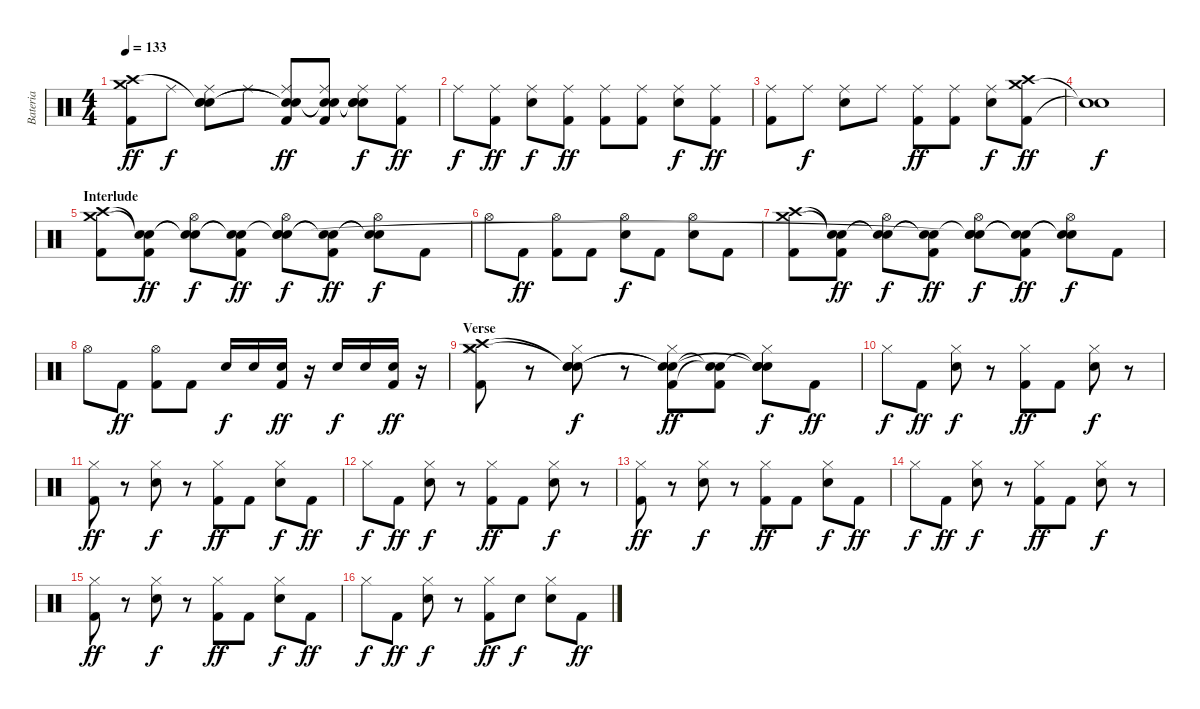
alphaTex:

\track ("Bateria" "Bateria") {instrument percussion}
\staff {score}
\articulation defaults
\ts (4 4)
\tempo 133
\clef neutral
\ks c
("Kick (hit) 2" "Crash medium (hit)" "Crash high (hit)").8{dy ff} "Ride (middle)".8{dy f} ("Ride (middle)" "Snare (hit) 2" "Snare (hit)"{t} "Snare (hit)"{t}).8 "Ride (middle)".8 ("Ride (middle)" "Kick (hit) 2" "Snare (hit)"{t} "Snare (hit)"{t}).8{dy ff} ("Ride (middle)" "Kick (hit) 2" "Snare (hit)"{t} "Snare (hit)"{t}).8 ("Ride (middle)" "Snare (hit) 2" "Snare (hit)"{t} "Snare (hit)"{t}).8{dy f} ("Ride (middle)" "Kick (hit) 2").8{dy ff} |
"Ride (middle)".8{dy f} ("Ride (middle)" "Kick (hit) 2").8{dy ff} ("Ride (middle)" "Snare (hit) 2").8{dy f} ("Ride (middle)" "Kick (hit) 2").8{dy ff} ("Ride (middle)" "Kick (hit) 2").8 ("Ride (middle)" "Kick (hit) 2").8 ("Ride (middle)" "Snare (hit) 2").8{dy f} ("Ride (middle)" "Kick (hit) 2").8{dy ff} |
("Ride (middle)" "Kick (hit) 2").8 "Ride (middle)".8{dy f} ("Ride (middle)" "Snare (hit) 2").8 "Ride (middle)".8 ("Ride (middle)" "Kick (hit) 2").8{dy ff} ("Ride (middle)" "Kick (hit) 2").8 ("Ride (middle)" "Snare (hit) 2").8{dy f} ("Kick (hit) 2" "Crash medium (hit)" "Crash high (hit)").8{dy ff} |
("Snare (hit)"{t} "Snare (hit)"{t}).1{dy f} |
\section ("" "Interlude")
("Kick (hit) 2" "Crash high (hit)" "Crash medium (hit)").8 ("Kick (hit) 2" "Snare (hit)"{t} "Snare (hit)"{t}).8{dy ff} ("Hi-Hat (open)" "Snare (hit)"{t} "Snare (hit)"{t}).8{dy f} ("Kick (hit) 2" "Snare (hit)"{t} "Snare (hit)"{t}).8{dy ff} ("Hi-Hat (open)" "Snare (hit) 2" "Snare (hit)"{t} "Snare (hit)").8{dy f} ("Kick (hit) 2" "Snare (hit)"{t} "Snare (hit)"{t}).8{dy ff} ("Hi-Hat (open)" "Snare (hit)"{t} "Snare (hit)"{t}).8{dy f} "Kick (hit) 2".8 |
"Hi-Hat (open)".8 "Kick (hit) 2".8{dy ff} ("Hi-Hat (open)" "Kick (hit) 2").8 "Kick (hit) 2".8 ("Hi-Hat (open)" "Snare (hit) 2").8{dy f} "Kick (hit) 2".8 ("Hi-Hat (open)" "Snare (hit) 2").8 "Kick (hit) 2".8 |
("Kick (hit) 2" "Crash high (hit)" "Crash medium (hit)").8 ("Kick (hit) 2" "Snare (hit)"{t} "Snare (hit)"{t}).8{dy ff} ("Hi-Hat (open)" "Snare (hit)"{t} "Snare (hit)"{t}).8{dy f} ("Kick (hit) 2" "Snare (hit)"{t} "Snare (hit)"{t}).8{dy ff} ("Hi-Hat (open)" "Snare (hit) 2" "Snare (hit)"{t} "Snare (hit)"{t}).8{dy f} ("Kick (hit) 2" "Snare (hit)"{t} "Snare (hit)"{t}).8{dy ff} ("Hi-Hat (open)" "Snare (hit)"{t} "Snare (hit)"{t}).8{dy f} "Kick (hit) 2".8 |
"Hi-Hat (open)".8 "Kick (hit) 2".8{dy ff} ("Hi-Hat (open)" "Kick (hit) 2").8 "Kick (hit) 2".8 "Snare (hit) 2".16{dy f} "Snare (hit) 2".16 ("Snare (hit) 2" "Kick (hit) 2").16{dy ff} r.16 "Snare (hit) 2".16{dy f} "Snare (hit) 2".16 ("Snare (hit) 2" "Kick (hit) 2").16{dy ff} r.16 |
\section ("" "Verse")
("Hi-Hat (closed)" "Kick (hit) 2" "Crash medium (hit)" "Crash high (hit)").8 r.8 ("Hi-Hat (closed)" "Snare (hit) 2" "Snare (hit)"{t} "Snare (hit)"{t}).8{dy f} r.8 ("Hi-Hat (closed)" "Kick (hit) 2" "Snare (hit)"{t} "Snare (hit)"{t}).8{dy ff} ("Kick (hit) 2" "Snare (hit)"{t} "Snare (hit)"{t}).8 ("Hi-Hat (closed)" "Snare (hit) 2" "Snare (hit)"{t} "Snare (hit)"{t}).8{dy f} "Kick (hit) 2".8{dy ff} |
"Hi-Hat (closed)".8{dy f} "Kick (hit) 2".8{dy ff} ("Hi-Hat (closed)" "Snare (hit) 2").8{dy f} r.8 ("Hi-Hat (closed)" "Kick (hit) 2").8{dy ff} "Kick (hit) 2".8 ("Hi-Hat (closed)" "Snare (hit) 2").8{dy f} r.8 |
("Hi-Hat (closed)" "Kick (hit) 2").8{dy ff} r.8 ("Hi-Hat (closed)" "Snare (hit) 2").8{dy f} r.8 ("Hi-Hat (closed)" "Kick (hit) 2").8{dy ff} "Kick (hit) 2".8 ("Hi-Hat (closed)" "Snare (hit) 2").8{dy f} "Kick (hit) 2".8{dy ff} |
"Hi-Hat (closed)".8{dy f} "Kick (hit) 2".8{dy ff} ("Hi-Hat (closed)" "Snare (hit) 2").8{dy f} r.8 ("Hi-Hat (closed)" "Kick (hit) 2").8{dy ff} "Kick (hit) 2".8 ("Hi-Hat (closed)" "Snare (hit) 2").8{dy f} r.8 |
("Hi-Hat (closed)" "Kick (hit) 2").8{dy ff} r.8 ("Hi-Hat (closed)" "Snare (hit) 2").8{dy f} r.8 ("Hi-Hat (closed)" "Kick (hit) 2").8{dy ff} "Kick (hit) 2".8 ("Hi-Hat (closed)" "Snare (hit) 2").8{dy f} "Kick (hit) 2".8{dy ff} |
"Hi-Hat (closed)".8{dy f} "Kick (hit) 2".8{dy ff} ("Hi-Hat (closed)" "Snare (hit) 2").8{dy f} r.8 ("Hi-Hat (closed)" "Kick (hit) 2").8{dy ff} "Kick (hit) 2".8 ("Hi-Hat (closed)" "Snare (hit) 2").8{dy f} r.8 |
("Hi-Hat (closed)" "Kick (hit) 2").8{dy ff} r.8 ("Hi-Hat (closed)" "Snare (hit) 2").8{dy f} r.8 ("Hi-Hat (closed)" "Kick (hit) 2").8{dy ff} "Kick (hit) 2".8 ("Hi-Hat (closed)" "Snare (hit) 2").8{dy f} "Kick (hit) 2".8{dy ff} |
"Hi-Hat (closed)".8{dy f} "Kick (hit) 2".8{dy ff} ("Hi-Hat (closed)" "Snare (hit) 2").8{dy f} r.8 ("Hi-Hat (closed)" "Kick (hit) 2").8{dy ff} "Snare (hit) 2".8{dy f} ("Hi-Hat (closed)" "Snare (hit) 2").8 "Kick (hit) 2".8{dy ff}
